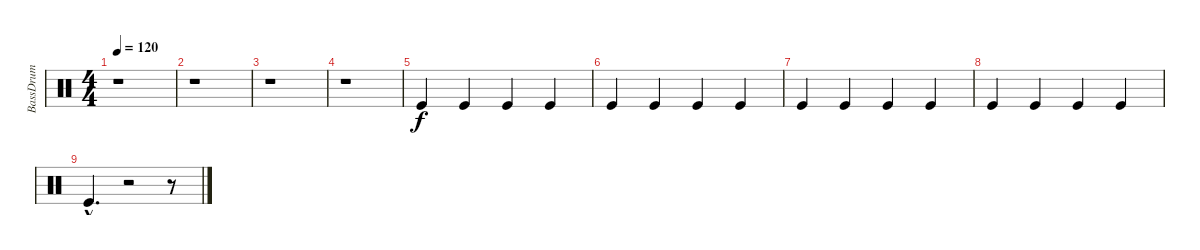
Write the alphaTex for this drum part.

\track ("BassDrum" "BassDrum") {instrument percussion}
\staff {score}
\articulation defaults
\ts (4 4)
\tempo 120
\clef neutral
\ks c
r.1{dy f} |
r.1 |
r.1 |
r.1 |
"Kick (hit)".4 "Kick (hit)".4 "Kick (hit)".4 "Kick (hit)".4 |
"Kick (hit)".4 "Kick (hit)".4 "Kick (hit)".4 "Kick (hit)".4 |
"Kick (hit)".4 "Kick (hit)".4 "Kick (hit)".4 "Kick (hit)".4 |
"Kick (hit)".4 "Kick (hit)".4 "Kick (hit)".4 "Kick (hit)".4 |
"Kick (hit)"{hac}.4{d} r.2 r.8
